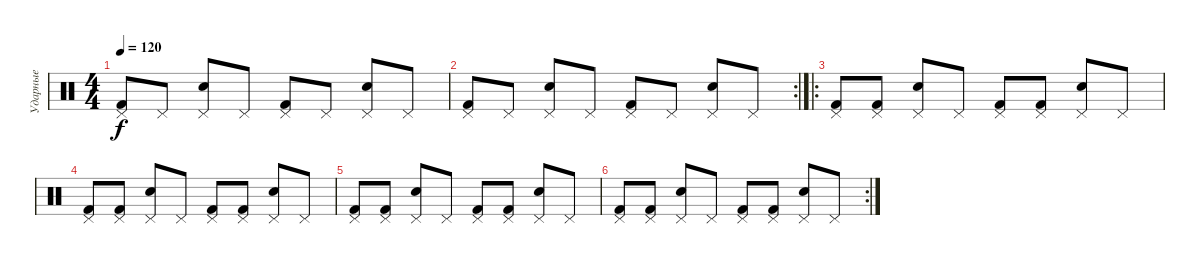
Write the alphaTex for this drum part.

\track ("Ударные" "Ударные") {instrument percussion}
\staff {score}
\articulation defaults
\ts (4 4)
\tempo 120
\clef neutral
\ks c
("Pedal Hi-Hat (hit)" "Kick (hit) 2").8{dy f} "Pedal Hi-Hat (hit)".8 ("Pedal Hi-Hat (hit)" "Snare (hit) 2").8 "Pedal Hi-Hat (hit)".8 ("Pedal Hi-Hat (hit)" "Kick (hit) 2").8 "Pedal Hi-Hat (hit)".8 ("Pedal Hi-Hat (hit)" "Snare (hit) 2").8 "Pedal Hi-Hat (hit)".8 |
\rc 2
("Kick (hit) 2" "Pedal Hi-Hat (hit)").8 "Pedal Hi-Hat (hit)".8 ("Snare (hit) 2" "Pedal Hi-Hat (hit)").8 "Pedal Hi-Hat (hit)".8 ("Kick (hit) 2" "Pedal Hi-Hat (hit)").8 "Pedal Hi-Hat (hit)".8 ("Snare (hit) 2" "Pedal Hi-Hat (hit)").8 "Pedal Hi-Hat (hit)".8 |
\ro
("Pedal Hi-Hat (hit)" "Kick (hit) 2").8 ("Pedal Hi-Hat (hit)" "Kick (hit) 2").8 ("Pedal Hi-Hat (hit)" "Electric Snare (hit)").8 "Pedal Hi-Hat (hit)".8 ("Pedal Hi-Hat (hit)" "Kick (hit) 2").8 ("Pedal Hi-Hat (hit)" "Kick (hit) 2").8 ("Pedal Hi-Hat (hit)" "Electric Snare (hit)").8 "Pedal Hi-Hat (hit)".8 |
("Pedal Hi-Hat (hit)" "Kick (hit) 2").8 ("Pedal Hi-Hat (hit)" "Kick (hit) 2").8 ("Pedal Hi-Hat (hit)" "Electric Snare (hit)").8 "Pedal Hi-Hat (hit)".8 ("Pedal Hi-Hat (hit)" "Kick (hit) 2").8 ("Pedal Hi-Hat (hit)" "Kick (hit) 2").8 ("Pedal Hi-Hat (hit)" "Electric Snare (hit)").8 "Pedal Hi-Hat (hit)".8 |
("Kick (hit) 2" "Pedal Hi-Hat (hit)").8 ("Pedal Hi-Hat (hit)" "Kick (hit) 2").8 ("Pedal Hi-Hat (hit)" "Electric Snare (hit)").8 "Pedal Hi-Hat (hit)".8 ("Kick (hit) 2" "Pedal Hi-Hat (hit)").8 ("Pedal Hi-Hat (hit)" "Kick (hit) 2").8 ("Electric Snare (hit)" "Pedal Hi-Hat (hit)").8 "Pedal Hi-Hat (hit)".8 |
\rc 2
("Pedal Hi-Hat (hit)" "Kick (hit) 2").8 ("Kick (hit) 2" "Pedal Hi-Hat (hit)").8 ("Pedal Hi-Hat (hit)" "Electric Snare (hit)").8 "Pedal Hi-Hat (hit)".8 ("Kick (hit) 2" "Pedal Hi-Hat (hit)").8 ("Pedal Hi-Hat (hit)" "Kick (hit) 2").8 ("Pedal Hi-Hat (hit)" "Electric Snare (hit)").8 "Pedal Hi-Hat (hit)".8
